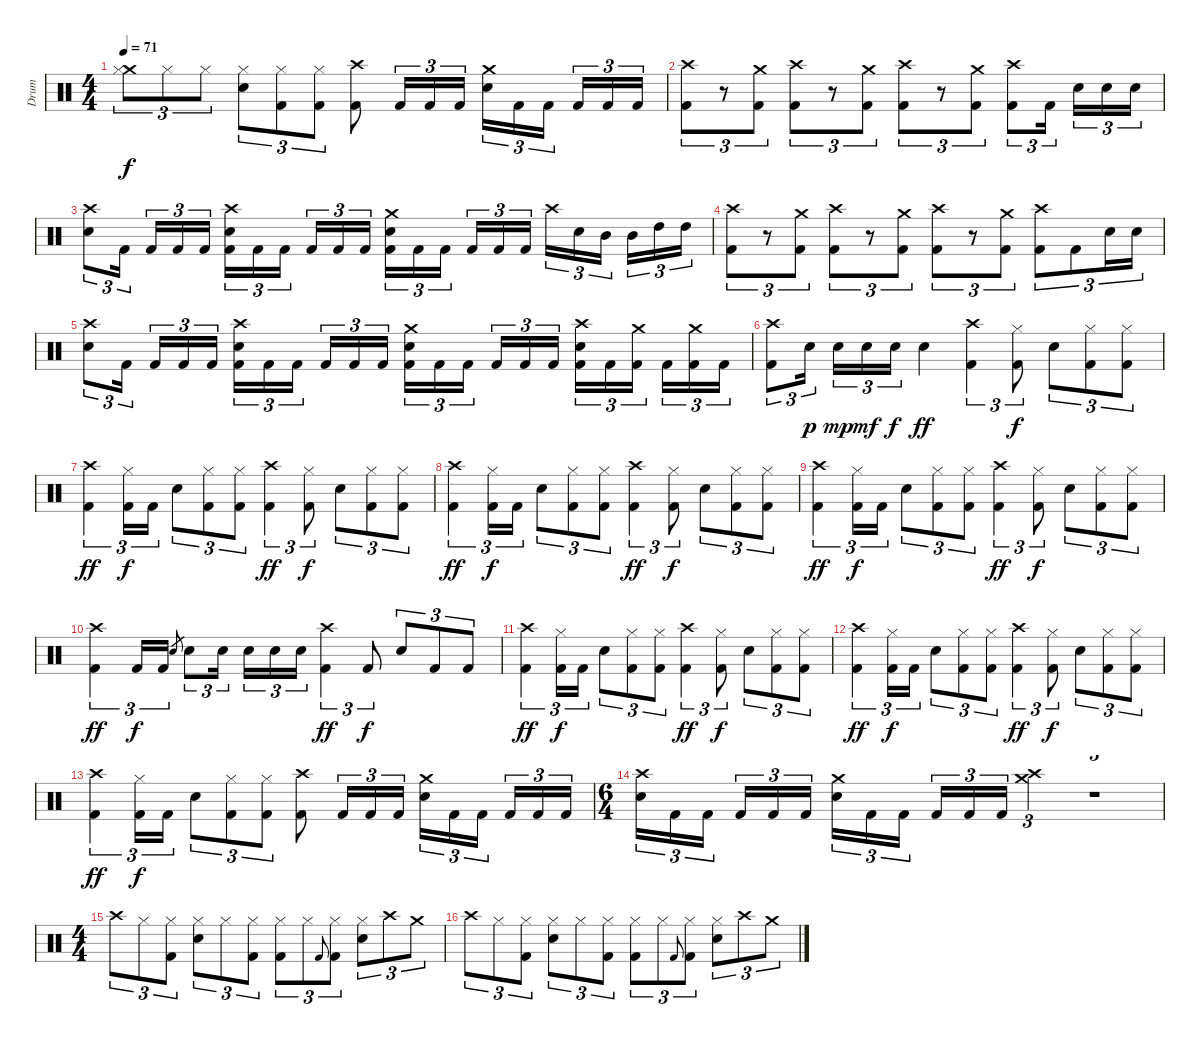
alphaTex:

\track ("Drum" "Drum") {instrument percussion}
\staff {score}
\articulation defaults
\ts (4 4)
\tempo 71
\clef neutral
\ks c
("Crash medium (hit)" "Hi-Hat (closed)").8{tu (3 2) dy f} "Hi-Hat (closed)".8{tu (3 2)} "Hi-Hat (closed)".8{tu (3 2)} ("Hi-Hat (closed)" "Electric Snare (hit)").8{tu (3 2)} ("Hi-Hat (closed)" "Kick (hit) 2").8{tu (3 2)} ("Hi-Hat (closed)" "Kick (hit) 2").8{tu (3 2)} ("Crash high (hit)" "Kick (hit) 2").8 "Kick (hit) 2".16{tu (3 2)} "Kick (hit) 2".16{tu (3 2)} "Kick (hit) 2".16{tu (3 2)} ("Crash medium (hit)" "Electric Snare (hit)").16{tu (3 2)} "Kick (hit) 2".16{tu (3 2)} "Kick (hit) 2".16{tu (3 2) beam splitsecondary} "Kick (hit) 2".16{tu (3 2)} "Kick (hit) 2".16{tu (3 2)} "Kick (hit) 2".16{tu (3 2)} |
("Crash high (hit)" "Kick (hit) 2").8{tu (3 2)} r.8{tu (3 2)} ("Crash medium (hit)" "Kick (hit) 2").8{tu (3 2)} ("Crash high (hit)" "Kick (hit) 2").8{tu (3 2)} r.8{tu (3 2)} ("Crash medium (hit)" "Kick (hit) 2").8{tu (3 2)} ("Crash high (hit)" "Kick (hit) 2").8{tu (3 2)} r.8{tu (3 2)} ("Crash medium (hit)" "Kick (hit) 2").8{tu (3 2)} ("Crash high (hit)" "Kick (hit) 2").8{tu (3 2)} "Kick (hit) 2".16{tu (3 2) beam splitsecondary} "Electric Snare (hit)".16{tu (3 2)} "Electric Snare (hit)".16{tu (3 2)} "Electric Snare (hit)".16{tu (3 2)} |
("Crash high (hit)" "Electric Snare (hit)").8{tu (3 2)} "Kick (hit) 2".16{tu (3 2) beam splitsecondary} "Kick (hit) 2".16{tu (3 2)} "Kick (hit) 2".16{tu (3 2)} "Kick (hit) 2".16{tu (3 2)} ("Electric Snare (hit)" "Crash high (hit)" "Kick (hit) 2").16{tu (3 2)} "Kick (hit) 2".16{tu (3 2)} "Kick (hit) 2".16{tu (3 2) beam splitsecondary} "Kick (hit) 2".16{tu (3 2)} "Kick (hit) 2".16{tu (3 2)} "Kick (hit) 2".16{tu (3 2)} ("Electric Snare (hit)" "Crash medium (hit)" "Kick (hit) 2").16{tu (3 2)} "Kick (hit) 2".16{tu (3 2)} "Kick (hit) 2".16{tu (3 2) beam splitsecondary} "Kick (hit) 2".16{tu (3 2)} "Kick (hit) 2".16{tu (3 2)} "Kick (hit) 2".16{tu (3 2)} "Crash high (hit)".16{tu (3 2)} "Electric Snare (hit)".16{tu (3 2)} "Mid Tom (hit)".16{tu (3 2) beam splitsecondary} "Mid Tom (hit)".16{tu (3 2)} "High Tom (hit)".16{tu (3 2)} "High Tom (hit)".16{tu (3 2)} |
("Crash high (hit)" "Kick (hit) 2").8{tu (3 2)} r.8{tu (3 2)} ("Crash medium (hit)" "Kick (hit) 2").8{tu (3 2)} ("Crash high (hit)" "Kick (hit) 2").8{tu (3 2)} r.8{tu (3 2)} ("Crash medium (hit)" "Kick (hit) 2").8{tu (3 2)} ("Crash high (hit)" "Kick (hit) 2").8{tu (3 2)} r.8{tu (3 2)} ("Crash medium (hit)" "Kick (hit) 2").8{tu (3 2)} ("Crash high (hit)" "Kick (hit) 2").8{tu (3 2)} "Kick (hit) 2".8{tu (3 2)} "Electric Snare (hit)".16{tu (3 2)} "Electric Snare (hit)".16{tu (3 2)} |
("Electric Snare (hit)" "Crash high (hit)").8{tu (3 2)} "Kick (hit) 2".16{tu (3 2) beam splitsecondary} "Kick (hit) 2".16{tu (3 2)} "Kick (hit) 2".16{tu (3 2)} "Kick (hit) 2".16{tu (3 2)} ("Electric Snare (hit)" "Crash high (hit)" "Kick (hit) 2").16{tu (3 2)} "Kick (hit) 2".16{tu (3 2)} "Kick (hit) 2".16{tu (3 2) beam splitsecondary} "Kick (hit) 2".16{tu (3 2)} "Kick (hit) 2".16{tu (3 2)} "Kick (hit) 2".16{tu (3 2)} ("Electric Snare (hit)" "Crash medium (hit)" "Kick (hit) 2").16{tu (3 2)} "Kick (hit) 2".16{tu (3 2)} "Kick (hit) 2".16{tu (3 2) beam splitsecondary} "Kick (hit) 2".16{tu (3 2)} "Kick (hit) 2".16{tu (3 2)} "Kick (hit) 2".16{tu (3 2)} ("Electric Snare (hit)" "Crash high (hit)" "Kick (hit) 2").16{tu (3 2)} "Kick (hit) 2".16{tu (3 2)} ("Crash medium (hit)" "Kick (hit) 2").16{tu (3 2) beam splitsecondary} "Kick (hit) 2".16{tu (3 2)} ("Crash medium (hit)" "Kick (hit) 2").16{tu (3 2)} "Kick (hit) 2".16{tu (3 2)} |
("Crash high (hit)" "Kick (hit) 2").8{tu (3 2)} "Electric Snare (hit)".16{tu (3 2) dy p beam splitsecondary} "Electric Snare (hit)".16{tu (3 2) dy mp} "Electric Snare (hit)".16{tu (3 2) dy mf} "Electric Snare (hit)".16{tu (3 2) dy f} "Electric Snare (hit)".4{dy ff} ("Crash high (hit)" "Kick (hit) 2").4{tu (3 2)} ("Hi-Hat (closed)" "Kick (hit) 2").8{tu (3 2) dy f} "Electric Snare (hit)".8{tu (3 2)} ("Kick (hit) 2" "Hi-Hat (closed)").8{tu (3 2)} ("Kick (hit) 2" "Hi-Hat (closed)").8{tu (3 2)} |
("Crash high (hit)" "Kick (hit) 2").4{tu (3 2) dy ff} ("Hi-Hat (closed)" "Kick (hit) 2").16{tu (3 2) dy f} "Kick (hit) 2".16{tu (3 2)} "Electric Snare (hit)".8{tu (3 2)} ("Kick (hit) 2" "Hi-Hat (closed)").8{tu (3 2)} ("Kick (hit) 2" "Hi-Hat (closed)").8{tu (3 2)} ("Crash high (hit)" "Kick (hit) 2").4{tu (3 2) dy ff} ("Hi-Hat (closed)" "Kick (hit) 2").8{tu (3 2) dy f} "Electric Snare (hit)".8{tu (3 2)} ("Kick (hit) 2" "Hi-Hat (closed)").8{tu (3 2)} ("Kick (hit) 2" "Hi-Hat (closed)").8{tu (3 2)} |
("Crash high (hit)" "Kick (hit) 2").4{tu (3 2) dy ff} ("Hi-Hat (closed)" "Kick (hit) 2").16{tu (3 2) dy f} "Kick (hit) 2".16{tu (3 2)} "Electric Snare (hit)".8{tu (3 2)} ("Kick (hit) 2" "Hi-Hat (closed)").8{tu (3 2)} ("Kick (hit) 2" "Hi-Hat (closed)").8{tu (3 2)} ("Crash high (hit)" "Kick (hit) 2").4{tu (3 2) dy ff} ("Hi-Hat (closed)" "Kick (hit) 2").8{tu (3 2) dy f} "Electric Snare (hit)".8{tu (3 2)} ("Kick (hit) 2" "Hi-Hat (closed)").8{tu (3 2)} ("Kick (hit) 2" "Hi-Hat (closed)").8{tu (3 2)} |
("Crash high (hit)" "Kick (hit) 2").4{tu (3 2) dy ff} ("Hi-Hat (closed)" "Kick (hit) 2").16{tu (3 2) dy f} "Kick (hit) 2".16{tu (3 2)} "Electric Snare (hit)".8{tu (3 2)} ("Kick (hit) 2" "Hi-Hat (closed)").8{tu (3 2)} ("Kick (hit) 2" "Hi-Hat (closed)").8{tu (3 2)} ("Crash high (hit)" "Kick (hit) 2").4{tu (3 2) dy ff} ("Hi-Hat (closed)" "Kick (hit) 2").8{tu (3 2) dy f} "Electric Snare (hit)".8{tu (3 2)} ("Kick (hit) 2" "Hi-Hat (closed)").8{tu (3 2)} ("Kick (hit) 2" "Hi-Hat (closed)").8{tu (3 2)} |
("Crash high (hit)" "Kick (hit) 2").4{tu (3 2) dy ff} "Kick (hit) 2".16{tu (3 2) dy f} "Kick (hit) 2".16{tu (3 2)} "Electric Snare (hit)".8{gr} "Electric Snare (hit)".8{tu (3 2)} "Electric Snare (hit)".16{tu (3 2) beam splitsecondary} "Electric Snare (hit)".16{tu (3 2)} "Electric Snare (hit)".16{tu (3 2)} "Electric Snare (hit)".16{tu (3 2)} ("Crash high (hit)" "Kick (hit) 2").4{tu (3 2) dy ff} "Kick (hit) 2".8{tu (3 2) dy f} "Electric Snare (hit)".8{tu (3 2)} "Kick (hit) 2".8{tu (3 2)} "Kick (hit) 2".8{tu (3 2)} |
("Crash high (hit)" "Kick (hit) 2").4{tu (3 2) dy ff} ("Hi-Hat (closed)" "Kick (hit) 2").16{tu (3 2) dy f} "Kick (hit) 2".16{tu (3 2)} "Electric Snare (hit)".8{tu (3 2)} ("Kick (hit) 2" "Hi-Hat (closed)").8{tu (3 2)} ("Kick (hit) 2" "Hi-Hat (closed)").8{tu (3 2)} ("Crash high (hit)" "Kick (hit) 2").4{tu (3 2) dy ff} ("Hi-Hat (closed)" "Kick (hit) 2").8{tu (3 2) dy f} "Electric Snare (hit)".8{tu (3 2)} ("Kick (hit) 2" "Hi-Hat (closed)").8{tu (3 2)} ("Kick (hit) 2" "Hi-Hat (closed)").8{tu (3 2)} |
("Crash high (hit)" "Kick (hit) 2").4{tu (3 2) dy ff} ("Hi-Hat (closed)" "Kick (hit) 2").16{tu (3 2) dy f} "Kick (hit) 2".16{tu (3 2)} "Electric Snare (hit)".8{tu (3 2)} ("Kick (hit) 2" "Hi-Hat (closed)").8{tu (3 2)} ("Kick (hit) 2" "Hi-Hat (closed)").8{tu (3 2)} ("Crash high (hit)" "Kick (hit) 2").4{tu (3 2) dy ff} ("Hi-Hat (closed)" "Kick (hit) 2").8{tu (3 2) dy f} "Electric Snare (hit)".8{tu (3 2)} ("Kick (hit) 2" "Hi-Hat (closed)").8{tu (3 2)} ("Kick (hit) 2" "Hi-Hat (closed)").8{tu (3 2)} |
("Crash high (hit)" "Kick (hit) 2").4{tu (3 2) dy ff} ("Hi-Hat (closed)" "Kick (hit) 2").16{tu (3 2) dy f} "Kick (hit) 2".16{tu (3 2)} "Electric Snare (hit)".8{tu (3 2)} ("Kick (hit) 2" "Hi-Hat (closed)").8{tu (3 2)} ("Kick (hit) 2" "Hi-Hat (closed)").8{tu (3 2)} ("Crash high (hit)" "Kick (hit) 2").8 "Kick (hit) 2".16{tu (3 2)} "Kick (hit) 2".16{tu (3 2)} "Kick (hit) 2".16{tu (3 2)} ("Crash medium (hit)" "Electric Snare (hit)").16{tu (3 2)} "Kick (hit) 2".16{tu (3 2)} "Kick (hit) 2".16{tu (3 2) beam splitsecondary} "Kick (hit) 2".16{tu (3 2)} "Kick (hit) 2".16{tu (3 2)} "Kick (hit) 2".16{tu (3 2)} |
\ts (6 4)
("Crash high (hit)" "Electric Snare (hit)").16{tu (3 2)} "Kick (hit) 2".16{tu (3 2)} "Kick (hit) 2".16{tu (3 2) beam splitsecondary} "Kick (hit) 2".16{tu (3 2)} "Kick (hit) 2".16{tu (3 2)} "Kick (hit) 2".16{tu (3 2) beam splitsecondary} ("Crash medium (hit)" "Electric Snare (hit)").16{tu (3 2)} "Kick (hit) 2".16{tu (3 2)} "Kick (hit) 2".16{tu (3 2) beam splitsecondary} "Kick (hit) 2".16{tu (3 2)} "Kick (hit) 2".16{tu (3 2)} "Kick (hit) 2".16{tu (3 2)} ("Crash medium (hit)" "Crash high (hit)").2{tu (3 2)} r.1{tu (3 2)} |
\ts (4 4)
"Crash high (hit)".8{tu (3 2)} "Hi-Hat (closed)".8{tu (3 2)} ("Hi-Hat (closed)" "Kick (hit) 2").8{tu (3 2)} ("Hi-Hat (closed)" "Electric Snare (hit)").8{tu (3 2)} "Hi-Hat (closed)".8{tu (3 2)} ("Hi-Hat (closed)" "Kick (hit) 2").8{tu (3 2)} ("Hi-Hat (closed)" "Kick (hit) 2").8{tu (3 2)} "Hi-Hat (closed)".8{tu (3 2)} "Kick (hit) 2".8{gr onbeat} ("Hi-Hat (closed)" "Kick (hit) 2").8{tu (3 2)} ("Hi-Hat (closed)" "Electric Snare (hit)").8{tu (3 2)} "Crash high (hit)".8{tu (3 2)} "Crash medium (hit)".8{tu (3 2)} |
"Crash high (hit)".8{tu (3 2)} "Hi-Hat (closed)".8{tu (3 2)} ("Hi-Hat (closed)" "Kick (hit) 2").8{tu (3 2)} ("Hi-Hat (closed)" "Electric Snare (hit)").8{tu (3 2)} "Hi-Hat (closed)".8{tu (3 2)} ("Hi-Hat (closed)" "Kick (hit) 2").8{tu (3 2)} ("Hi-Hat (closed)" "Kick (hit) 2").8{tu (3 2)} "Hi-Hat (closed)".8{tu (3 2)} "Kick (hit) 2".8{gr onbeat} ("Hi-Hat (closed)" "Kick (hit) 2").8{tu (3 2)} ("Hi-Hat (closed)" "Electric Snare (hit)").8{tu (3 2)} "Crash high (hit)".8{tu (3 2)} "Crash medium (hit)".8{tu (3 2)}
